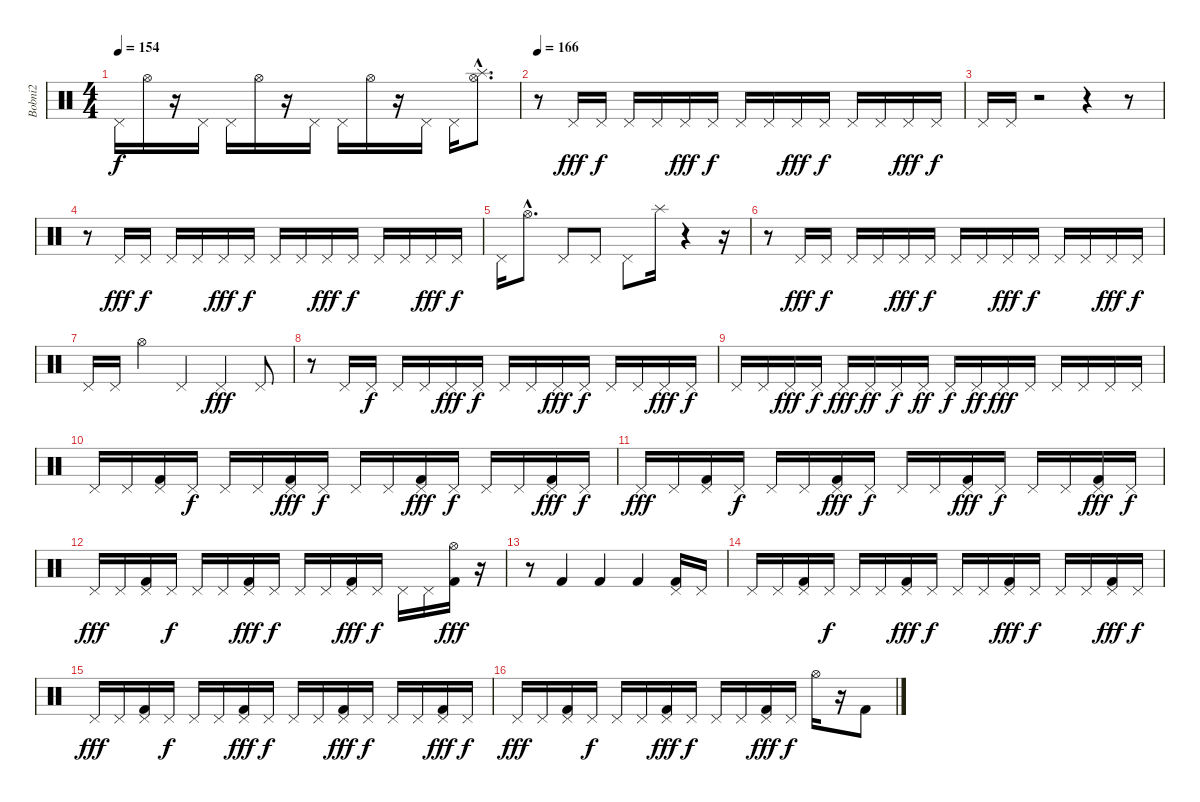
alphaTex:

\track ("Bobni2" "Bobni2") {instrument percussion}
\staff {score}
\articulation defaults
\ts (4 4)
\tempo 154
\clef neutral
\ks c "Pedal Hi-Hat (hit)".16{dy f} "Hi-Hat (open)".16
r.16 "Pedal Hi-Hat (hit)".16 "Pedal Hi-Hat (hit)".16 "Hi-Hat (open)".16 r.16 "Pedal Hi-Hat (hit)".16 "Pedal Hi-Hat (hit)".16 "Hi-Hat (open)".16 r.16 "Pedal Hi-Hat (hit)".16 "Pedal Hi-Hat (hit)".16 ("Hi-Hat (open)"{hac} "Splash (hit)"{hac}).8{d} |
\tempo 166
r.8 "Pedal Hi-Hat (hit)".16{dy fff} "Pedal Hi-Hat (hit)".16{dy f} "Pedal Hi-Hat (hit)".16 "Pedal Hi-Hat (hit)".16 "Pedal Hi-Hat (hit)".16{dy fff} "Pedal Hi-Hat (hit)".16{dy f} "Pedal Hi-Hat (hit)".16 "Pedal Hi-Hat (hit)".16 "Pedal Hi-Hat (hit)".16{dy fff} "Pedal Hi-Hat (hit)".16{dy f} "Pedal Hi-Hat (hit)".16 "Pedal Hi-Hat (hit)".16 "Pedal Hi-Hat (hit)".16{dy fff} "Pedal Hi-Hat (hit)".16{dy f} |
"Pedal Hi-Hat (hit)".16 "Pedal Hi-Hat (hit)".16 r.2 r.4 r.8 |
r.8 "Pedal Hi-Hat (hit)".16{dy fff} "Pedal Hi-Hat (hit)".16{dy f} "Pedal Hi-Hat (hit)".16 "Pedal Hi-Hat (hit)".16 "Pedal Hi-Hat (hit)".16{dy fff} "Pedal Hi-Hat (hit)".16{dy f} "Pedal Hi-Hat (hit)".16 "Pedal Hi-Hat (hit)".16 "Pedal Hi-Hat (hit)".16{dy fff} "Pedal Hi-Hat (hit)".16{dy f} "Pedal Hi-Hat (hit)".16 "Pedal Hi-Hat (hit)".16 "Pedal Hi-Hat (hit)".16{dy fff} "Pedal Hi-Hat (hit)".16{dy f} |
"Pedal Hi-Hat (hit)".16 "Hi-Hat (open)"{hac}.8{d} "Pedal Hi-Hat (hit)".8 "Pedal Hi-Hat (hit)".8 "Pedal Hi-Hat (hit)".8 "Splash (hit)".16 r.4 r.16 |
r.8 "Pedal Hi-Hat (hit)".16{dy fff} "Pedal Hi-Hat (hit)".16{dy f} "Pedal Hi-Hat (hit)".16 "Pedal Hi-Hat (hit)".16 "Pedal Hi-Hat (hit)".16{dy fff} "Pedal Hi-Hat (hit)".16{dy f} "Pedal Hi-Hat (hit)".16 "Pedal Hi-Hat (hit)".16 "Pedal Hi-Hat (hit)".16{dy fff} "Pedal Hi-Hat (hit)".16{dy f} "Pedal Hi-Hat (hit)".16 "Pedal Hi-Hat (hit)".16 "Pedal Hi-Hat (hit)".16{dy fff} "Pedal Hi-Hat (hit)".16{dy f} |
"Pedal Hi-Hat (hit)".16 "Pedal Hi-Hat (hit)".16 "Hi-Hat (open)".4 "Pedal Hi-Hat (hit)".4 "Pedal Hi-Hat (hit)".4{dy fff} "Pedal Hi-Hat (hit)".8 |
r.8 "Pedal Hi-Hat (hit)".16 "Pedal Hi-Hat (hit)".16{dy f} "Pedal Hi-Hat (hit)".16 "Pedal Hi-Hat (hit)".16 "Pedal Hi-Hat (hit)".16{dy fff} "Pedal Hi-Hat (hit)".16{dy f} "Pedal Hi-Hat (hit)".16 "Pedal Hi-Hat (hit)".16 "Pedal Hi-Hat (hit)".16{dy fff} "Pedal Hi-Hat (hit)".16{dy f} "Pedal Hi-Hat (hit)".16 "Pedal Hi-Hat (hit)".16 "Pedal Hi-Hat (hit)".16{dy fff} "Pedal Hi-Hat (hit)".16{dy f} |
"Pedal Hi-Hat (hit)".16 "Pedal Hi-Hat (hit)".16 "Pedal Hi-Hat (hit)".16{dy fff} "Pedal Hi-Hat (hit)".16{dy f} "Pedal Hi-Hat (hit)".16{dy fff} "Pedal Hi-Hat (hit)".16{dy ff} "Pedal Hi-Hat (hit)".16{dy f} "Pedal Hi-Hat (hit)".16{dy ff} "Pedal Hi-Hat (hit)".16{dy f} "Pedal Hi-Hat (hit)".16{dy ff} "Pedal Hi-Hat (hit)".16{dy fff} "Pedal Hi-Hat (hit)".16 "Pedal Hi-Hat (hit)".16 "Pedal Hi-Hat (hit)".16 "Pedal Hi-Hat (hit)".16 "Pedal Hi-Hat (hit)".16 |
"Pedal Hi-Hat (hit)".16 "Pedal Hi-Hat (hit)".16 ("Pedal Hi-Hat (hit)" "Kick (hit) 2").16 "Pedal Hi-Hat (hit)".16{dy f} "Pedal Hi-Hat (hit)".16 "Pedal Hi-Hat (hit)".16 ("Pedal Hi-Hat (hit)" "Kick (hit) 2").16{dy fff} "Pedal Hi-Hat (hit)".16{dy f} "Pedal Hi-Hat (hit)".16 "Pedal Hi-Hat (hit)".16 ("Pedal Hi-Hat (hit)" "Kick (hit) 2").16{dy fff} "Pedal Hi-Hat (hit)".16{dy f} "Pedal Hi-Hat (hit)".16 "Pedal Hi-Hat (hit)".16 ("Pedal Hi-Hat (hit)" "Kick (hit) 2").16{dy fff} "Pedal Hi-Hat (hit)".16{dy f} |
"Pedal Hi-Hat (hit)".16{dy fff} "Pedal Hi-Hat (hit)".16 ("Pedal Hi-Hat (hit)" "Kick (hit) 2").16 "Pedal Hi-Hat (hit)".16{dy f} "Pedal Hi-Hat (hit)".16 "Pedal Hi-Hat (hit)".16 ("Pedal Hi-Hat (hit)" "Kick (hit) 2").16{dy fff} "Pedal Hi-Hat (hit)".16{dy f} "Pedal Hi-Hat (hit)".16 "Pedal Hi-Hat (hit)".16 ("Pedal Hi-Hat (hit)" "Kick (hit) 2").16{dy fff} "Pedal Hi-Hat (hit)".16{dy f} "Pedal Hi-Hat (hit)".16 "Pedal Hi-Hat (hit)".16 ("Pedal Hi-Hat (hit)" "Kick (hit) 2").16{dy fff} "Pedal Hi-Hat (hit)".16{dy f} |
"Pedal Hi-Hat (hit)".16{dy fff} "Pedal Hi-Hat (hit)".16 ("Pedal Hi-Hat (hit)" "Kick (hit) 2").16 "Pedal Hi-Hat (hit)".16{dy f} "Pedal Hi-Hat (hit)".16 "Pedal Hi-Hat (hit)".16 ("Pedal Hi-Hat (hit)" "Kick (hit) 2").16{dy fff} "Pedal Hi-Hat (hit)".16{dy f} "Pedal Hi-Hat (hit)".16 "Pedal Hi-Hat (hit)".16 ("Pedal Hi-Hat (hit)" "Kick (hit) 2").16{dy fff} "Pedal Hi-Hat (hit)".16{dy f} "Pedal Hi-Hat (hit)".16 "Pedal Hi-Hat (hit)".16 ("Hi-Hat (open)" "Kick (hit) 2").16{dy fff} r.16 |
r.8 "Kick (hit) 2".4 "Kick (hit) 2".4 "Kick (hit) 2".4 ("Pedal Hi-Hat (hit)" "Kick (hit) 2").16 "Pedal Hi-Hat (hit)".16 |
"Pedal Hi-Hat (hit)".16 "Pedal Hi-Hat (hit)".16 ("Pedal Hi-Hat (hit)" "Kick (hit) 2").16 "Pedal Hi-Hat (hit)".16{dy f} "Pedal Hi-Hat (hit)".16 "Pedal Hi-Hat (hit)".16 ("Pedal Hi-Hat (hit)" "Kick (hit) 2").16{dy fff} "Pedal Hi-Hat (hit)".16{dy f} "Pedal Hi-Hat (hit)".16 "Pedal Hi-Hat (hit)".16 ("Pedal Hi-Hat (hit)" "Kick (hit) 2").16{dy fff} "Pedal Hi-Hat (hit)".16{dy f} "Pedal Hi-Hat (hit)".16 "Pedal Hi-Hat (hit)".16 ("Pedal Hi-Hat (hit)" "Kick (hit) 2").16{dy fff} "Pedal Hi-Hat (hit)".16{dy f} |
"Pedal Hi-Hat (hit)".16{dy fff} "Pedal Hi-Hat (hit)".16 ("Pedal Hi-Hat (hit)" "Kick (hit) 2").16 "Pedal Hi-Hat (hit)".16{dy f} "Pedal Hi-Hat (hit)".16 "Pedal Hi-Hat (hit)".16 ("Pedal Hi-Hat (hit)" "Kick (hit) 2").16{dy fff} "Pedal Hi-Hat (hit)".16{dy f} "Pedal Hi-Hat (hit)".16 "Pedal Hi-Hat (hit)".16 ("Pedal Hi-Hat (hit)" "Kick (hit) 2").16{dy fff} "Pedal Hi-Hat (hit)".16{dy f} "Pedal Hi-Hat (hit)".16 "Pedal Hi-Hat (hit)".16 ("Pedal Hi-Hat (hit)" "Kick (hit) 2").16{dy fff} "Pedal Hi-Hat (hit)".16{dy f} |
"Pedal Hi-Hat (hit)".16{dy fff} "Pedal Hi-Hat (hit)".16 ("Pedal Hi-Hat (hit)" "Kick (hit) 2").16 "Pedal Hi-Hat (hit)".16{dy f} "Pedal Hi-Hat (hit)".16 "Pedal Hi-Hat (hit)".16 ("Pedal Hi-Hat (hit)" "Kick (hit) 2").16{dy fff} "Pedal Hi-Hat (hit)".16{dy f} "Pedal Hi-Hat (hit)".16 "Pedal Hi-Hat (hit)".16 ("Pedal Hi-Hat (hit)" "Kick (hit) 2").16{dy fff} "Pedal Hi-Hat (hit)".16{dy f} "Hi-Hat (open)".16 r.16 "Kick (hit) 2".8
